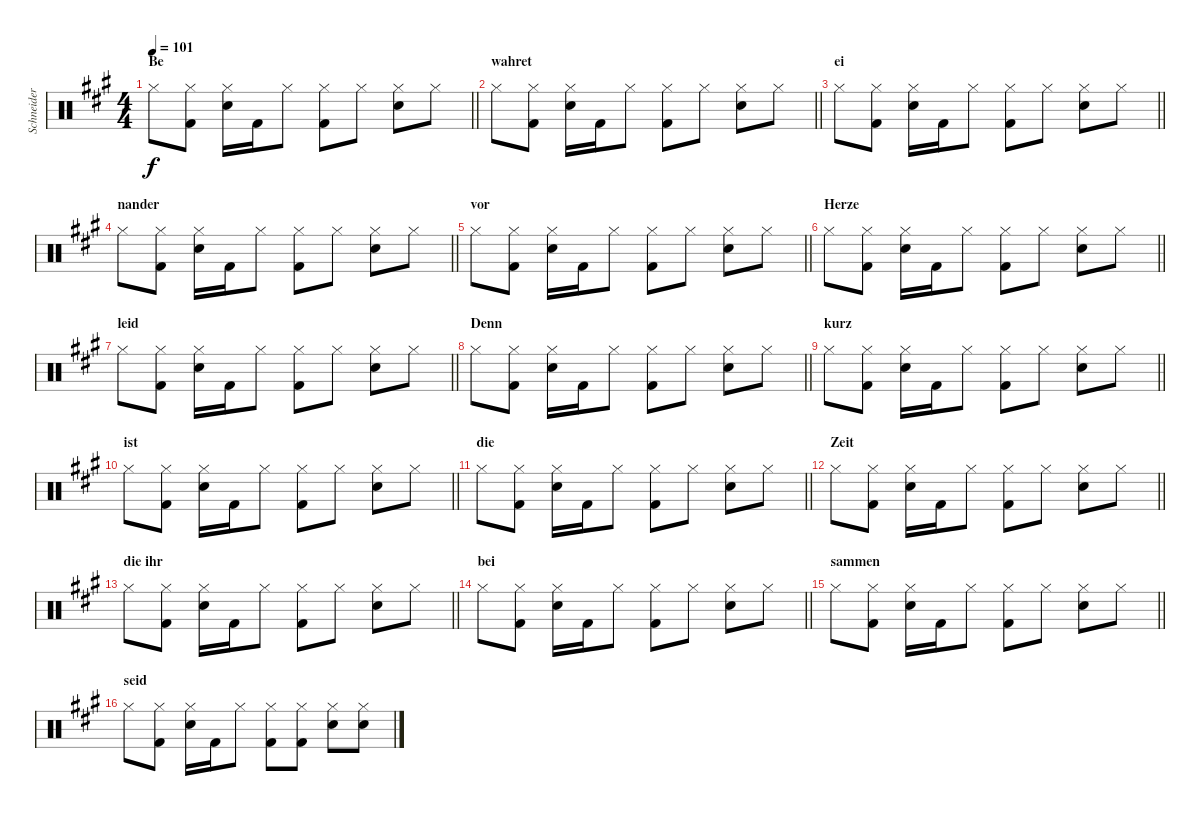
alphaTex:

\track ("Schneider" "Schneider") {instrument percussion}
\staff {score}
\articulation defaults
\ts (4 4)
\section ("" "Be")
\tempo 101
\clef neutral
\barLineRight lightlight
\ks f#minor "Hi-Hat (closed)".8{dy f}
("Hi-Hat (closed)" "Kick (hit) 2").8 ("Hi-Hat (closed)" "Snare (hit) 2").16 "Kick (hit) 2".16 "Hi-Hat (closed)".8 ("Hi-Hat (closed)" "Kick (hit) 2").8 "Hi-Hat (closed)".8 ("Hi-Hat (closed)" "Snare (hit) 2").8 "Hi-Hat (closed)".8 |
\section ("" "wahret")
\barLineRight lightlight "Hi-Hat (closed)".8
("Hi-Hat (closed)" "Kick (hit) 2").8 ("Hi-Hat (closed)" "Snare (hit) 2").16 "Kick (hit) 2".16 "Hi-Hat (closed)".8 ("Hi-Hat (closed)" "Kick (hit) 2").8 "Hi-Hat (closed)".8 ("Hi-Hat (closed)" "Snare (hit) 2").8 "Hi-Hat (closed)".8 |
\section ("" "ei")
\barLineRight lightlight "Hi-Hat (closed)".8
("Hi-Hat (closed)" "Kick (hit) 2").8 ("Hi-Hat (closed)" "Snare (hit) 2").16 "Kick (hit) 2".16 "Hi-Hat (closed)".8 ("Hi-Hat (closed)" "Kick (hit) 2").8 "Hi-Hat (closed)".8 ("Hi-Hat (closed)" "Snare (hit) 2").8 "Hi-Hat (closed)".8 |
\section ("" "nander")
\barLineRight lightlight "Hi-Hat (closed)".8
("Hi-Hat (closed)" "Kick (hit) 2").8 ("Hi-Hat (closed)" "Snare (hit) 2").16 "Kick (hit) 2".16 "Hi-Hat (closed)".8 ("Hi-Hat (closed)" "Kick (hit) 2").8 "Hi-Hat (closed)".8 ("Hi-Hat (closed)" "Snare (hit) 2").8 "Hi-Hat (closed)".8 |
\section ("" "vor")
\barLineRight lightlight "Hi-Hat (closed)".8
("Hi-Hat (closed)" "Kick (hit) 2").8 ("Hi-Hat (closed)" "Snare (hit) 2").16 "Kick (hit) 2".16 "Hi-Hat (closed)".8 ("Hi-Hat (closed)" "Kick (hit) 2").8 "Hi-Hat (closed)".8 ("Hi-Hat (closed)" "Snare (hit) 2").8 "Hi-Hat (closed)".8 |
\section ("" "Herze")
\barLineRight lightlight "Hi-Hat (closed)".8
("Hi-Hat (closed)" "Kick (hit) 2").8 ("Hi-Hat (closed)" "Snare (hit) 2").16 "Kick (hit) 2".16 "Hi-Hat (closed)".8 ("Hi-Hat (closed)" "Kick (hit) 2").8 "Hi-Hat (closed)".8 ("Hi-Hat (closed)" "Snare (hit) 2").8 "Hi-Hat (closed)".8 |
\section ("" "leid")
\barLineRight lightlight "Hi-Hat (closed)".8
("Hi-Hat (closed)" "Kick (hit) 2").8 ("Hi-Hat (closed)" "Snare (hit) 2").16 "Kick (hit) 2".16 "Hi-Hat (closed)".8 ("Hi-Hat (closed)" "Kick (hit) 2").8 "Hi-Hat (closed)".8 ("Hi-Hat (closed)" "Snare (hit) 2").8 "Hi-Hat (closed)".8 |
\section ("" "Denn")
\barLineRight lightlight "Hi-Hat (closed)".8
("Hi-Hat (closed)" "Kick (hit) 2").8 ("Hi-Hat (closed)" "Snare (hit) 2").16 "Kick (hit) 2".16 "Hi-Hat (closed)".8 ("Hi-Hat (closed)" "Kick (hit) 2").8 "Hi-Hat (closed)".8 ("Hi-Hat (closed)" "Snare (hit) 2").8 "Hi-Hat (closed)".8 |
\section ("" "kurz ")
\barLineRight lightlight "Hi-Hat (closed)".8
("Hi-Hat (closed)" "Kick (hit) 2").8 ("Hi-Hat (closed)" "Snare (hit) 2").16 "Kick (hit) 2".16 "Hi-Hat (closed)".8 ("Hi-Hat (closed)" "Kick (hit) 2").8 "Hi-Hat (closed)".8 ("Hi-Hat (closed)" "Snare (hit) 2").8 "Hi-Hat (closed)".8 |
\section ("" "ist")
\barLineRight lightlight "Hi-Hat (closed)".8
("Hi-Hat (closed)" "Kick (hit) 2").8 ("Hi-Hat (closed)" "Snare (hit) 2").16 "Kick (hit) 2".16 "Hi-Hat (closed)".8 ("Hi-Hat (closed)" "Kick (hit) 2").8 "Hi-Hat (closed)".8 ("Hi-Hat (closed)" "Snare (hit) 2").8 "Hi-Hat (closed)".8 |
\section ("" "die ")
\barLineRight lightlight "Hi-Hat (closed)".8
("Hi-Hat (closed)" "Kick (hit) 2").8 ("Hi-Hat (closed)" "Snare (hit) 2").16 "Kick (hit) 2".16 "Hi-Hat (closed)".8 ("Hi-Hat (closed)" "Kick (hit) 2").8 "Hi-Hat (closed)".8 ("Hi-Hat (closed)" "Snare (hit) 2").8 "Hi-Hat (closed)".8 |
\section ("" "Zeit")
\barLineRight lightlight "Hi-Hat (closed)".8
("Hi-Hat (closed)" "Kick (hit) 2").8 ("Hi-Hat (closed)" "Snare (hit) 2").16 "Kick (hit) 2".16 "Hi-Hat (closed)".8 ("Hi-Hat (closed)" "Kick (hit) 2").8 "Hi-Hat (closed)".8 ("Hi-Hat (closed)" "Snare (hit) 2").8 "Hi-Hat (closed)".8 |
\section ("" "die ihr")
\barLineRight lightlight "Hi-Hat (closed)".8
("Hi-Hat (closed)" "Kick (hit) 2").8 ("Hi-Hat (closed)" "Snare (hit) 2").16 "Kick (hit) 2".16 "Hi-Hat (closed)".8 ("Hi-Hat (closed)" "Kick (hit) 2").8 "Hi-Hat (closed)".8 ("Hi-Hat (closed)" "Snare (hit) 2").8 "Hi-Hat (closed)".8 |
\section ("" "bei")
\barLineRight lightlight "Hi-Hat (closed)".8
("Hi-Hat (closed)" "Kick (hit) 2").8 ("Hi-Hat (closed)" "Snare (hit) 2").16 "Kick (hit) 2".16 "Hi-Hat (closed)".8 ("Hi-Hat (closed)" "Kick (hit) 2").8 "Hi-Hat (closed)".8 ("Hi-Hat (closed)" "Snare (hit) 2").8 "Hi-Hat (closed)".8 |
\section ("" "sammen")
\barLineRight lightlight "Hi-Hat (closed)".8
("Hi-Hat (closed)" "Kick (hit) 2").8 ("Hi-Hat (closed)" "Snare (hit) 2").16 "Kick (hit) 2".16 "Hi-Hat (closed)".8 ("Hi-Hat (closed)" "Kick (hit) 2").8 "Hi-Hat (closed)".8 ("Hi-Hat (closed)" "Snare (hit) 2").8 "Hi-Hat (closed)".8 |
\section ("" "seid")
"Hi-Hat (closed)".8 ("Hi-Hat (closed)" "Kick (hit) 2").8 ("Hi-Hat (closed)" "Snare (hit) 2").16 "Kick (hit) 2".16 "Hi-Hat (closed)".8 ("Hi-Hat (closed)" "Kick (hit) 2").8 ("Hi-Hat (closed)" "Kick (hit) 2").8 ("Hi-Hat (closed)" "Snare (hit) 2").8 ("Hi-Hat (closed)" "Snare (hit) 2").8
